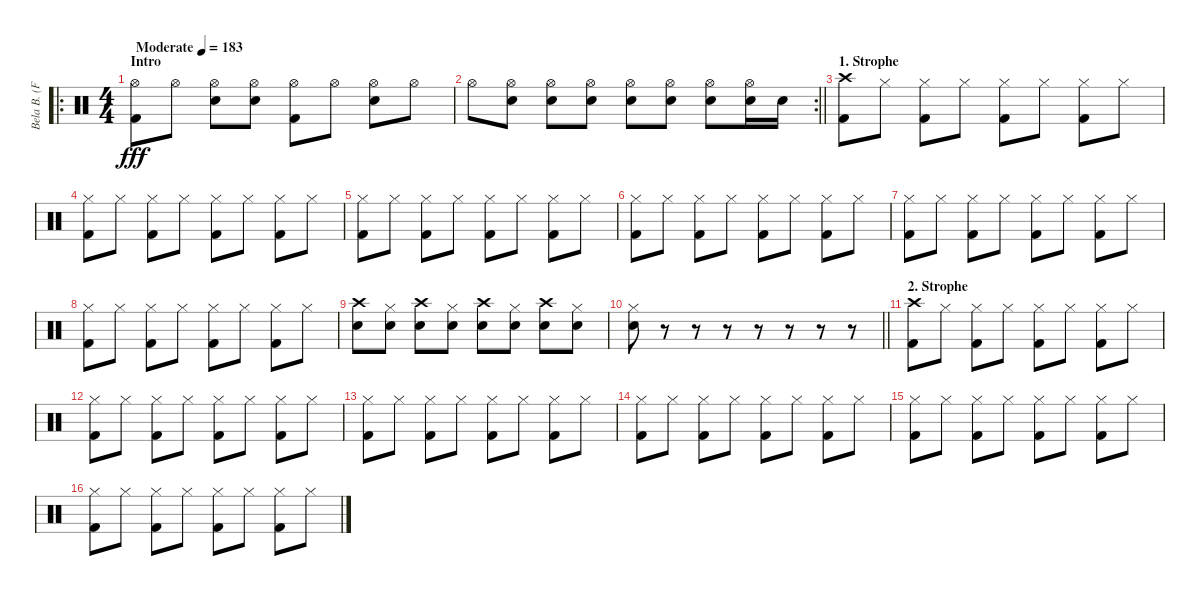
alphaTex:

\track ("Bela B. (Felsenheimer)" "Bela B. (F") {instrument percussion}
\staff {score}
\articulation defaults
\ro
\ts (4 4)
\section ("" "Intro")
\tempo (183 "Moderate")
\clef neutral
\ks c
("Hi-Hat (open)" "Kick (hit) 2").8{dy fff} "Hi-Hat (open)".8 ("Hi-Hat (open)" "Snare (hit) 2").8 ("Hi-Hat (open)" "Snare (hit) 2").8 ("Hi-Hat (open)" "Kick (hit) 2").8 "Hi-Hat (open)".8 ("Hi-Hat (open)" "Snare (hit) 2").8 "Hi-Hat (open)".8 |
\rc 2
\barLineRight lightlight "Hi-Hat (open)".8
("Hi-Hat (open)" "Snare (hit) 2").8 ("Hi-Hat (open)" "Snare (hit) 2").8 ("Hi-Hat (open)" "Snare (hit) 2").8 ("Hi-Hat (open)" "Snare (hit) 2").8 ("Hi-Hat (open)" "Snare (hit) 2").8 ("Hi-Hat (open)" "Snare (hit) 2").8 ("Hi-Hat (open)" "Snare (hit) 2").16 "Snare (hit) 2".16 |
\section ("" "1. Strophe")
("Crash high (hit)" "Kick (hit) 2").8 "Hi-Hat (closed)".8 ("Hi-Hat (closed)" "Kick (hit) 2").8 "Hi-Hat (closed)".8 ("Hi-Hat (closed)" "Kick (hit) 2").8 "Hi-Hat (closed)".8 ("Hi-Hat (closed)" "Kick (hit) 2").8 "Hi-Hat (closed)".8 |
("Kick (hit) 2" "Hi-Hat (closed)").8 "Hi-Hat (closed)".8 ("Kick (hit) 2" "Hi-Hat (closed)").8 "Hi-Hat (closed)".8 ("Kick (hit) 2" "Hi-Hat (closed)").8 "Hi-Hat (closed)".8 ("Kick (hit) 2" "Hi-Hat (closed)").8 "Hi-Hat (closed)".8 |
("Kick (hit) 2" "Hi-Hat (closed)").8 "Hi-Hat (closed)".8 ("Kick (hit) 2" "Hi-Hat (closed)").8 "Hi-Hat (closed)".8 ("Kick (hit) 2" "Hi-Hat (closed)").8 "Hi-Hat (closed)".8 ("Kick (hit) 2" "Hi-Hat (closed)").8 "Hi-Hat (closed)".8 |
("Kick (hit) 2" "Hi-Hat (closed)").8 "Hi-Hat (closed)".8 ("Kick (hit) 2" "Hi-Hat (closed)").8 "Hi-Hat (closed)".8 ("Kick (hit) 2" "Hi-Hat (closed)").8 "Hi-Hat (closed)".8 ("Kick (hit) 2" "Hi-Hat (closed)").8 "Hi-Hat (closed)".8 |
("Kick (hit) 2" "Hi-Hat (closed)").8 "Hi-Hat (closed)".8 ("Kick (hit) 2" "Hi-Hat (closed)").8 "Hi-Hat (closed)".8 ("Kick (hit) 2" "Hi-Hat (closed)").8 "Hi-Hat (closed)".8 ("Kick (hit) 2" "Hi-Hat (closed)").8 "Hi-Hat (closed)".8 |
("Kick (hit) 2" "Hi-Hat (closed)").8 "Hi-Hat (closed)".8 ("Kick (hit) 2" "Hi-Hat (closed)").8 "Hi-Hat (closed)".8 ("Kick (hit) 2" "Hi-Hat (closed)").8 "Hi-Hat (closed)".8 ("Kick (hit) 2" "Hi-Hat (closed)").8 "Hi-Hat (closed)".8 |
("Crash high (hit)" "Snare (hit) 2").8 ("Hi-Hat (closed)" "Snare (hit) 2").8 ("Crash high (hit)" "Snare (hit) 2").8 ("Hi-Hat (closed)" "Snare (hit) 2").8 ("Crash high (hit)" "Snare (hit) 2").8 ("Hi-Hat (closed)" "Snare (hit) 2").8 ("Crash high (hit)" "Snare (hit) 2").8 ("Hi-Hat (closed)" "Snare (hit) 2").8 |
\barLineRight lightlight
("Hi-Hat (closed)" "Snare (hit) 2").8 r.8 r.8 r.8 r.8 r.8 r.8 r.8 |
\section ("" "2. Strophe")
("Crash high (hit)" "Kick (hit) 2").8 "Hi-Hat (closed)".8 ("Hi-Hat (closed)" "Kick (hit) 2").8 "Hi-Hat (closed)".8 ("Hi-Hat (closed)" "Kick (hit) 2").8 "Hi-Hat (closed)".8 ("Hi-Hat (closed)" "Kick (hit) 2").8 "Hi-Hat (closed)".8 |
("Kick (hit) 2" "Hi-Hat (closed)").8 "Hi-Hat (closed)".8 ("Kick (hit) 2" "Hi-Hat (closed)").8 "Hi-Hat (closed)".8 ("Kick (hit) 2" "Hi-Hat (closed)").8 "Hi-Hat (closed)".8 ("Kick (hit) 2" "Hi-Hat (closed)").8 "Hi-Hat (closed)".8 |
("Kick (hit) 2" "Hi-Hat (closed)").8 "Hi-Hat (closed)".8 ("Kick (hit) 2" "Hi-Hat (closed)").8 "Hi-Hat (closed)".8 ("Kick (hit) 2" "Hi-Hat (closed)").8 "Hi-Hat (closed)".8 ("Kick (hit) 2" "Hi-Hat (closed)").8 "Hi-Hat (closed)".8 |
("Kick (hit) 2" "Hi-Hat (closed)").8 "Hi-Hat (closed)".8 ("Kick (hit) 2" "Hi-Hat (closed)").8 "Hi-Hat (closed)".8 ("Kick (hit) 2" "Hi-Hat (closed)").8 "Hi-Hat (closed)".8 ("Kick (hit) 2" "Hi-Hat (closed)").8 "Hi-Hat (closed)".8 |
("Kick (hit) 2" "Hi-Hat (closed)").8 "Hi-Hat (closed)".8 ("Kick (hit) 2" "Hi-Hat (closed)").8 "Hi-Hat (closed)".8 ("Kick (hit) 2" "Hi-Hat (closed)").8 "Hi-Hat (closed)".8 ("Kick (hit) 2" "Hi-Hat (closed)").8 "Hi-Hat (closed)".8 |
("Kick (hit) 2" "Hi-Hat (closed)").8 "Hi-Hat (closed)".8 ("Kick (hit) 2" "Hi-Hat (closed)").8 "Hi-Hat (closed)".8 ("Kick (hit) 2" "Hi-Hat (closed)").8 "Hi-Hat (closed)".8 ("Kick (hit) 2" "Hi-Hat (closed)").8 "Hi-Hat (closed)".8
